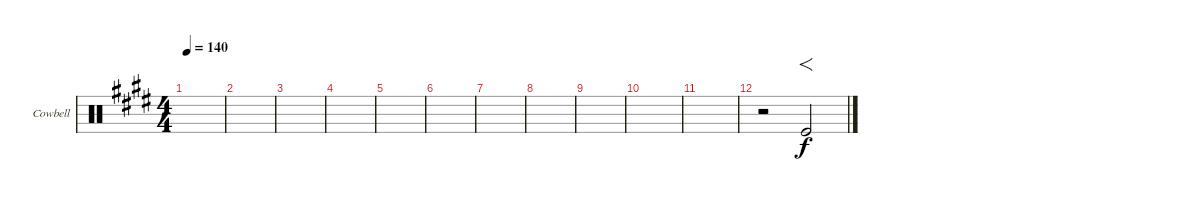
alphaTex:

\defaultSystemsLayout 4
\bracketExtendMode groupsimilarinstruments
\firstSystemTrackNameOrientation horizontal
\otherSystemsTrackNameOrientation horizontal
\track ("Cowbell" "Cowbell") {instrument percussion}
\staff {score}
\articulation defaults
\ts (4 4)
\tempo 140
\clef neutral
\scale
0.333333
\ks e
|
\scale
0.333333 |
\scale
0.333333 |
\scale
0.333333 |
\scale
0.333333 |
\scale
0.333333 |
\scale
0.333333 |
\scale
0.333333 |
\scale
0.333333 |
\scale
0.333333 |
\scale
0.333333 |
\scale
0.333333 r.2 "Kick (hit)".2{f} |
\scale
0.333333 |
\scale
0.333333 |
\scale
0.333333 |
\scale
0.333333
